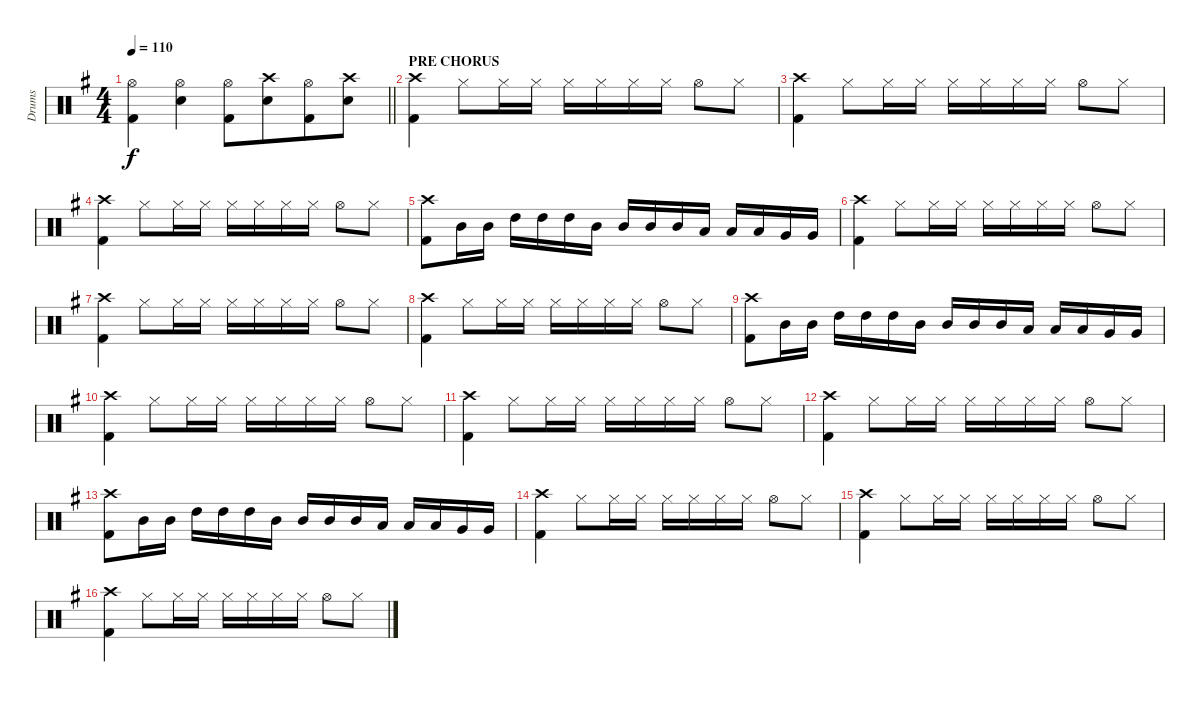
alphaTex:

\track ("Drums" "Drums") {instrument percussion}
\staff {score}
\articulation defaults
\ts (4 4)
\tempo 110
\clef neutral
\barLineRight lightlight
\ks eminor
("Hi-Hat (open)" "Kick (hit) 2").4{dy f} ("Hi-Hat (open)" "Electric Snare (hit)").4 ("Hi-Hat (open)" "Kick (hit) 2").8 ("Crash high (hit)" "Electric Snare (hit)").8{beam merge} ("Hi-Hat (open)" "Kick (hit) 2").8 ("Crash high (hit)" "Electric Snare (hit)").8 |
\section ("" "PRE CHORUS")
("Crash high (hit)" "Kick (hit) 2").4 "Hi-Hat (closed)".8 "Hi-Hat (closed)".16 "Hi-Hat (closed)".16 "Hi-Hat (closed)".16 "Hi-Hat (closed)".16 "Hi-Hat (closed)".16 "Hi-Hat (closed)".16 "Hi-Hat (open)".8 "Hi-Hat (closed)".8 |
("Crash high (hit)" "Kick (hit) 2").4 "Hi-Hat (closed)".8 "Hi-Hat (closed)".16 "Hi-Hat (closed)".16 "Hi-Hat (closed)".16 "Hi-Hat (closed)".16 "Hi-Hat (closed)".16 "Hi-Hat (closed)".16 "Hi-Hat (open)".8 "Hi-Hat (closed)".8 |
("Crash high (hit)" "Kick (hit) 2").4 "Hi-Hat (closed)".8 "Hi-Hat (closed)".16 "Hi-Hat (closed)".16 "Hi-Hat (closed)".16 "Hi-Hat (closed)".16 "Hi-Hat (closed)".16 "Hi-Hat (closed)".16 "Hi-Hat (open)".8 "Hi-Hat (closed)".8 |
("Crash high (hit)" "Kick (hit) 2").8 "Mid Tom (hit)".16 "Mid Tom (hit)".16 "High Tom (hit)".16 "High Tom (hit)".16 "High Tom (hit)".16 "Mid Tom (hit)".16 "Mid Tom (hit)".16 "Mid Tom (hit)".16 "Mid Tom (hit)".16 "Low Tom (hit)".16 "Low Tom (hit)".16 "Low Tom (hit)".16 "Very Low Tom (hit)".16 "Very Low Tom (hit)".16 |
("Crash high (hit)" "Kick (hit) 2").4 "Hi-Hat (closed)".8 "Hi-Hat (closed)".16 "Hi-Hat (closed)".16 "Hi-Hat (closed)".16 "Hi-Hat (closed)".16 "Hi-Hat (closed)".16 "Hi-Hat (closed)".16 "Hi-Hat (open)".8 "Hi-Hat (closed)".8 |
("Crash high (hit)" "Kick (hit) 2").4 "Hi-Hat (closed)".8 "Hi-Hat (closed)".16 "Hi-Hat (closed)".16 "Hi-Hat (closed)".16 "Hi-Hat (closed)".16 "Hi-Hat (closed)".16 "Hi-Hat (closed)".16 "Hi-Hat (open)".8 "Hi-Hat (closed)".8 |
("Crash high (hit)" "Kick (hit) 2").4 "Hi-Hat (closed)".8 "Hi-Hat (closed)".16 "Hi-Hat (closed)".16 "Hi-Hat (closed)".16 "Hi-Hat (closed)".16 "Hi-Hat (closed)".16 "Hi-Hat (closed)".16 "Hi-Hat (open)".8 "Hi-Hat (closed)".8 |
("Crash high (hit)" "Kick (hit) 2").8 "Mid Tom (hit)".16 "Mid Tom (hit)".16 "High Tom (hit)".16 "High Tom (hit)".16 "High Tom (hit)".16 "Mid Tom (hit)".16 "Mid Tom (hit)".16 "Mid Tom (hit)".16 "Mid Tom (hit)".16 "Low Tom (hit)".16 "Low Tom (hit)".16 "Low Tom (hit)".16 "Very Low Tom (hit)".16 "Very Low Tom (hit)".16 |
("Crash high (hit)" "Kick (hit) 2").4 "Hi-Hat (closed)".8 "Hi-Hat (closed)".16 "Hi-Hat (closed)".16 "Hi-Hat (closed)".16 "Hi-Hat (closed)".16 "Hi-Hat (closed)".16 "Hi-Hat (closed)".16 "Hi-Hat (open)".8 "Hi-Hat (closed)".8 |
("Crash high (hit)" "Kick (hit) 2").4 "Hi-Hat (closed)".8 "Hi-Hat (closed)".16 "Hi-Hat (closed)".16 "Hi-Hat (closed)".16 "Hi-Hat (closed)".16 "Hi-Hat (closed)".16 "Hi-Hat (closed)".16 "Hi-Hat (open)".8 "Hi-Hat (closed)".8 |
("Crash high (hit)" "Kick (hit) 2").4 "Hi-Hat (closed)".8 "Hi-Hat (closed)".16 "Hi-Hat (closed)".16 "Hi-Hat (closed)".16 "Hi-Hat (closed)".16 "Hi-Hat (closed)".16 "Hi-Hat (closed)".16 "Hi-Hat (open)".8 "Hi-Hat (closed)".8 |
("Crash high (hit)" "Kick (hit) 2").8 "Mid Tom (hit)".16 "Mid Tom (hit)".16 "High Tom (hit)".16 "High Tom (hit)".16 "High Tom (hit)".16 "Mid Tom (hit)".16 "Mid Tom (hit)".16 "Mid Tom (hit)".16 "Mid Tom (hit)".16 "Low Tom (hit)".16 "Low Tom (hit)".16 "Low Tom (hit)".16 "Very Low Tom (hit)".16 "Very Low Tom (hit)".16 |
("Crash high (hit)" "Kick (hit) 2").4 "Hi-Hat (closed)".8 "Hi-Hat (closed)".16 "Hi-Hat (closed)".16 "Hi-Hat (closed)".16 "Hi-Hat (closed)".16 "Hi-Hat (closed)".16 "Hi-Hat (closed)".16 "Hi-Hat (open)".8 "Hi-Hat (closed)".8 |
("Crash high (hit)" "Kick (hit) 2").4 "Hi-Hat (closed)".8 "Hi-Hat (closed)".16 "Hi-Hat (closed)".16 "Hi-Hat (closed)".16 "Hi-Hat (closed)".16 "Hi-Hat (closed)".16 "Hi-Hat (closed)".16 "Hi-Hat (open)".8 "Hi-Hat (closed)".8 |
("Crash high (hit)" "Kick (hit) 2").4 "Hi-Hat (closed)".8 "Hi-Hat (closed)".16 "Hi-Hat (closed)".16 "Hi-Hat (closed)".16 "Hi-Hat (closed)".16 "Hi-Hat (closed)".16 "Hi-Hat (closed)".16 "Hi-Hat (open)".8 "Hi-Hat (closed)".8
